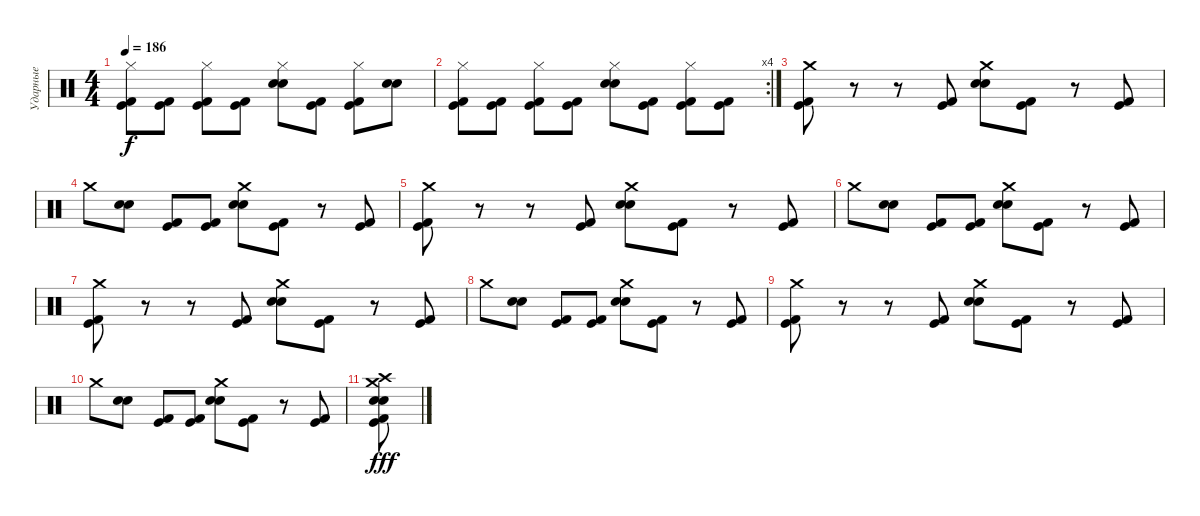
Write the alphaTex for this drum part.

\track ("Ударные" "Ударные") {instrument percussion}
\staff {score}
\articulation defaults
\ts (4 4)
\tempo 186
\clef neutral
\ks c
("Kick (hit) 2" "Kick (hit)" "Hi-Hat (closed)").8{dy f} ("Kick (hit) 2" "Kick (hit)").8 ("Kick (hit) 2" "Kick (hit)" "Hi-Hat (closed)").8 ("Kick (hit) 2" "Kick (hit)").8 ("Electric Snare (hit)" "Snare (hit) 2" "Hi-Hat (closed)").8 ("Kick (hit) 2" "Kick (hit)").8 ("Kick (hit) 2" "Kick (hit)" "Hi-Hat (closed)").8 ("Electric Snare (hit)" "Snare (hit) 2").8 |
\rc 4
("Kick (hit) 2" "Kick (hit)" "Hi-Hat (closed)").8 ("Kick (hit) 2" "Kick (hit)").8 ("Kick (hit) 2" "Kick (hit)" "Hi-Hat (closed)").8 ("Kick (hit) 2" "Kick (hit)").8 ("Electric Snare (hit)" "Snare (hit) 2" "Hi-Hat (closed)").8 ("Kick (hit) 2" "Kick (hit)").8 ("Kick (hit) 2" "Kick (hit)" "Hi-Hat (closed)").8 ("Kick (hit) 2" "Kick (hit)").8 |
("Kick (hit) 2" "Kick (hit)" "Crash medium (hit)").8 r.8 r.8 ("Kick (hit) 2" "Kick (hit)").8 ("Electric Snare (hit)" "Snare (hit) 2" "Crash medium (hit)").8 ("Kick (hit) 2" "Kick (hit)").8 r.8 ("Kick (hit) 2" "Kick (hit)").8 |
"Crash medium (hit)".8 ("Electric Snare (hit)" "Snare (hit) 2").8 ("Kick (hit) 2" "Kick (hit)").8 ("Kick (hit) 2" "Kick (hit)").8 ("Electric Snare (hit)" "Snare (hit) 2" "Crash medium (hit)").8 ("Kick (hit) 2" "Kick (hit)").8 r.8 ("Kick (hit) 2" "Kick (hit)").8 |
("Kick (hit) 2" "Kick (hit)" "Crash medium (hit)").8 r.8 r.8 ("Kick (hit) 2" "Kick (hit)").8 ("Electric Snare (hit)" "Snare (hit) 2" "Crash medium (hit)").8 ("Kick (hit) 2" "Kick (hit)").8 r.8 ("Kick (hit) 2" "Kick (hit)").8 |
"Crash medium (hit)".8 ("Electric Snare (hit)" "Snare (hit) 2").8 ("Kick (hit) 2" "Kick (hit)").8 ("Kick (hit) 2" "Kick (hit)").8 ("Electric Snare (hit)" "Snare (hit) 2" "Crash medium (hit)").8 ("Kick (hit) 2" "Kick (hit)").8 r.8 ("Kick (hit) 2" "Kick (hit)").8 |
("Kick (hit) 2" "Kick (hit)" "Crash medium (hit)").8 r.8 r.8 ("Kick (hit) 2" "Kick (hit)").8 ("Electric Snare (hit)" "Snare (hit) 2" "Crash medium (hit)").8 ("Kick (hit) 2" "Kick (hit)").8 r.8 ("Kick (hit) 2" "Kick (hit)").8 |
"Crash medium (hit)".8 ("Electric Snare (hit)" "Snare (hit) 2").8 ("Kick (hit) 2" "Kick (hit)").8 ("Kick (hit) 2" "Kick (hit)").8 ("Electric Snare (hit)" "Snare (hit) 2" "Crash medium (hit)").8 ("Kick (hit) 2" "Kick (hit)").8 r.8 ("Kick (hit) 2" "Kick (hit)").8 |
("Kick (hit) 2" "Kick (hit)" "Crash medium (hit)").8 r.8 r.8 ("Kick (hit) 2" "Kick (hit)").8 ("Electric Snare (hit)" "Snare (hit) 2" "Crash medium (hit)").8 ("Kick (hit) 2" "Kick (hit)").8 r.8 ("Kick (hit) 2" "Kick (hit)").8 |
"Crash medium (hit)".8 ("Electric Snare (hit)" "Snare (hit) 2").8 ("Kick (hit) 2" "Kick (hit)").8 ("Kick (hit) 2" "Kick (hit)").8 ("Electric Snare (hit)" "Snare (hit) 2" "Crash medium (hit)").8 ("Kick (hit) 2" "Kick (hit)").8 r.8 ("Kick (hit) 2" "Kick (hit)").8 |
("Kick (hit) 2" "Kick (hit)" "Electric Snare (hit)" "Snare (hit) 2" "Crash high (hit)" "Crash medium (hit)").8{dy fff}
